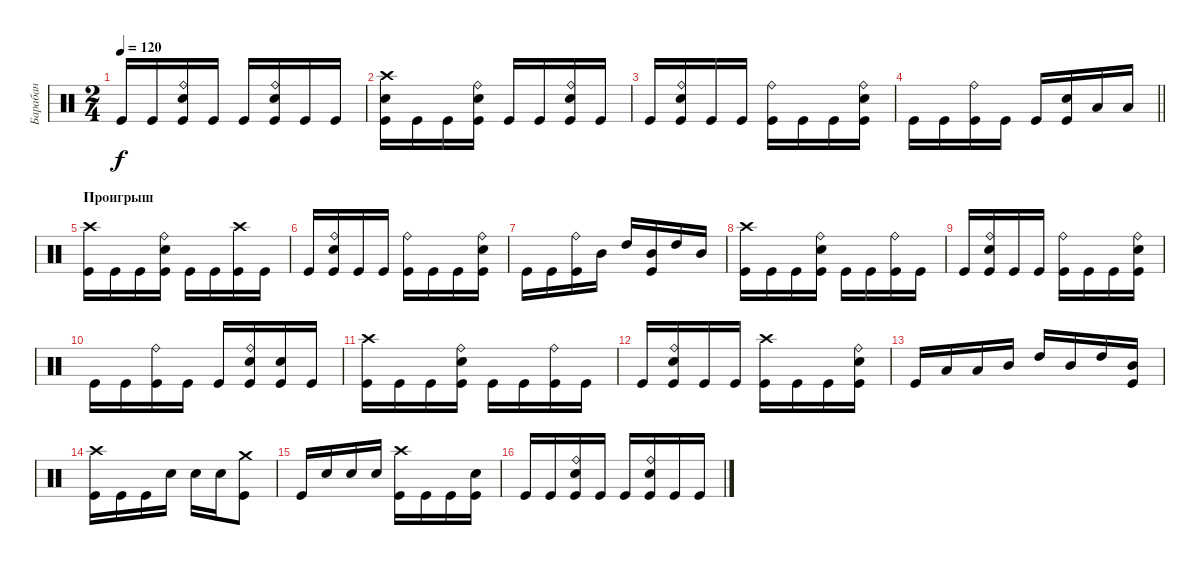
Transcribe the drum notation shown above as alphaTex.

\track ("Барабан" "Барабан") {instrument percussion}
\staff {score}
\articulation defaults
\ts (2 4)
\tempo 120
\clef neutral
\ks c "Kick (hit)".16{dy f} "Kick (hit)".16
("Ride (bell)" "Electric Snare (hit)" "Kick (hit)").16 "Kick (hit)".16 "Kick (hit)".16 ("Ride (bell)" "Electric Snare (hit)" "Kick (hit)").16 "Kick (hit)".16 "Kick (hit)".16 |
("Crash high (hit)" "Electric Snare (hit)" "Kick (hit)").16 "Kick (hit)".16 "Kick (hit)".16 ("Ride (bell)" "Electric Snare (hit)" "Kick (hit)").16 "Kick (hit)".16 "Kick (hit)".16 ("Ride (bell)" "Electric Snare (hit)" "Kick (hit)").16 "Kick (hit)".16 |
"Kick (hit)".16 ("Ride (bell)" "Electric Snare (hit)" "Kick (hit)").16 "Kick (hit)".16 "Kick (hit)".16 ("Ride (bell)" "Kick (hit)").16 "Kick (hit)".16 "Kick (hit)".16 ("Ride (bell)" "Electric Snare (hit)" "Kick (hit)").16 |
\barLineRight lightlight "Kick (hit)".16 "Kick (hit)".16
("Ride (bell)" "Kick (hit)").16 "Kick (hit)".16 "Kick (hit)".16 ("Electric Snare (hit)" "Kick (hit)").16 "Low Tom (hit)".16 "Low Tom (hit)".16 |
\section ("" "Проигрыш")
("Crash high (hit)" "Kick (hit)").16 "Kick (hit)".16 "Kick (hit)".16 ("Ride (bell)" "Electric Snare (hit)" "Kick (hit)").16 "Kick (hit)".16 "Kick (hit)".16 ("Crash high (hit)" "Kick (hit)").16 "Kick (hit)".16 |
"Kick (hit)".16 ("Ride (bell)" "Electric Snare (hit)" "Kick (hit)").16 "Kick (hit)".16 "Kick (hit)".16 ("Ride (bell)" "Kick (hit)").16 "Kick (hit)".16 "Kick (hit)".16 ("Ride (bell)" "Electric Snare (hit)" "Kick (hit)").16 |
"Kick (hit)".16 "Kick (hit)".16 ("Ride (bell)" "Kick (hit)").16 "Mid Tom (hit)".16 "High Tom (hit)".16 ("Mid Tom (hit)" "Kick (hit)").16 "High Tom (hit)".16 "Mid Tom (hit)".16 |
("Crash high (hit)" "Kick (hit)").16 "Kick (hit)".16 "Kick (hit)".16 ("Ride (bell)" "Electric Snare (hit)" "Kick (hit)").16 "Kick (hit)".16 "Kick (hit)".16 ("Ride (bell)" "Kick (hit)").16 "Kick (hit)".16 |
"Kick (hit)".16 ("Ride (bell)" "Electric Snare (hit)" "Kick (hit)").16 "Kick (hit)".16 "Kick (hit)".16 ("Ride (bell)" "Kick (hit)").16 "Kick (hit)".16 "Kick (hit)".16 ("Ride (bell)" "Electric Snare (hit)" "Kick (hit)").16 |
"Kick (hit)".16 "Kick (hit)".16 ("Ride (bell)" "Kick (hit)").16 "Kick (hit)".16 "Kick (hit)".16 ("Ride (bell)" "Electric Snare (hit)" "Kick (hit)").16 ("Electric Snare (hit)" "Kick (hit)").16 "Kick (hit)".16 |
("Crash high (hit)" "Kick (hit)").16 "Kick (hit)".16 "Kick (hit)".16 ("Ride (bell)" "Electric Snare (hit)" "Kick (hit)").16 "Kick (hit)".16 "Kick (hit)".16 ("Ride (bell)" "Kick (hit)").16 "Kick (hit)".16 |
"Kick (hit)".16 ("Ride (bell)" "Electric Snare (hit)" "Kick (hit)").16 "Kick (hit)".16 "Kick (hit)".16 ("Crash high (hit)" "Kick (hit)").16 "Kick (hit)".16 "Kick (hit)".16 ("Ride (bell)" "Electric Snare (hit)" "Kick (hit)").16 |
"Kick (hit)".16 "Low Tom (hit)".16 "Low Tom (hit)".16 "Mid Tom (hit)".16 "High Tom (hit)".16 "Mid Tom (hit)".16 "High Tom (hit)".16 ("Mid Tom (hit)" "Kick (hit)").16 |
("Crash high (hit)" "Kick (hit)").16 "Kick (hit)".16 "Kick (hit)".16 "Electric Snare (hit)".16 "Electric Snare (hit)".16 "Electric Snare (hit)".16 ("Crash medium (hit)" "Kick (hit)").8 |
"Kick (hit)".16 "Electric Snare (hit)".16 "Electric Snare (hit)".16 "Electric Snare (hit)".16 ("Crash high (hit)" "Kick (hit)").16 "Kick (hit)".16 "Kick (hit)".16 ("Electric Snare (hit)" "Kick (hit)").16 |
"Kick (hit)".16 "Kick (hit)".16 ("Ride (bell)" "Electric Snare (hit)" "Kick (hit)").16 "Kick (hit)".16 "Kick (hit)".16 ("Ride (bell)" "Electric Snare (hit)" "Kick (hit)").16 "Kick (hit)".16 "Kick (hit)".16
